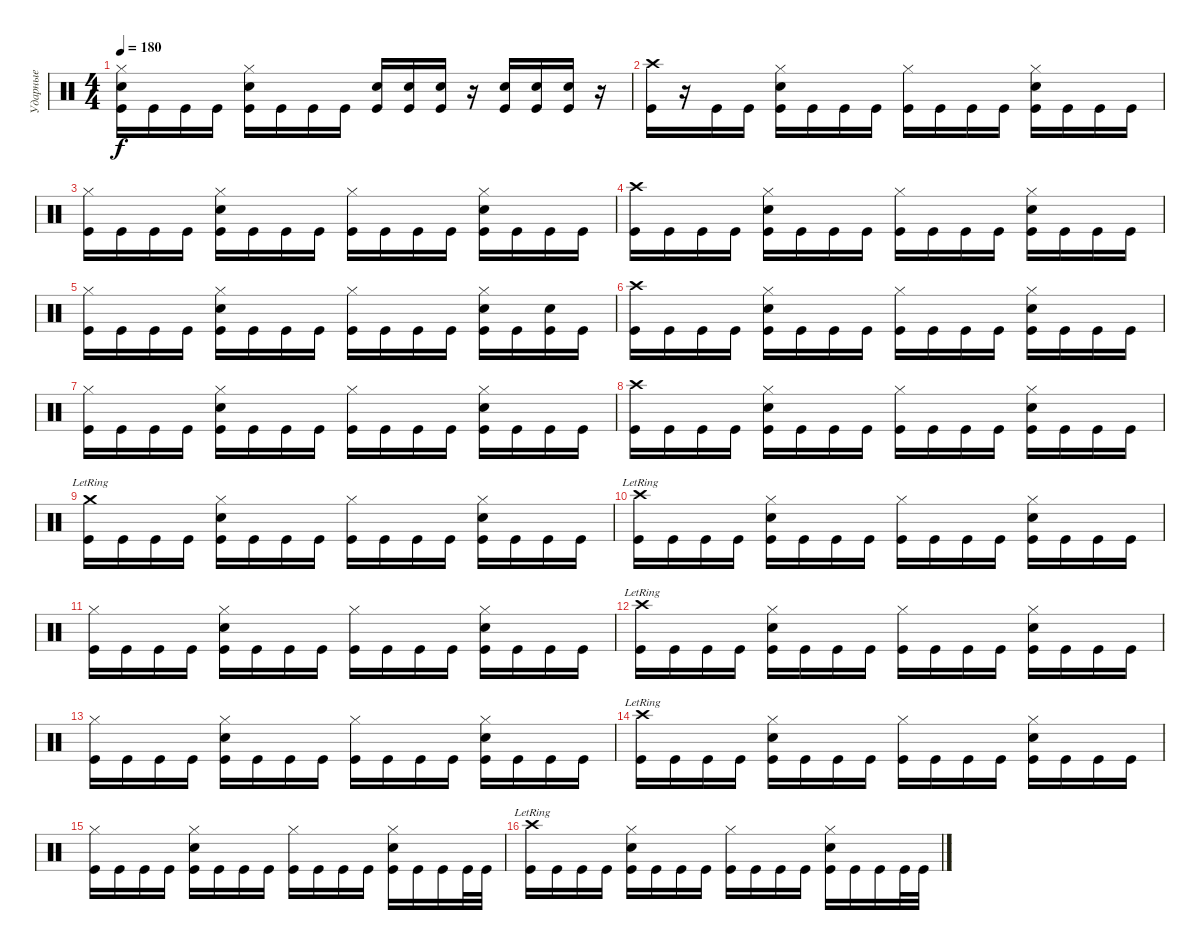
\track ("Ударные" "Ударные") {instrument percussion}
\staff {score}
\articulation defaults
\ts (4 4)
\tempo 180
\clef neutral
\ks c
("Hi-Hat (closed)" "Electric Snare (hit)" "Kick (hit)").16{dy f} "Kick (hit)".16 "Kick (hit)".16 "Kick (hit)".16 ("Hi-Hat (closed)" "Electric Snare (hit)" "Kick (hit)").16 "Kick (hit)".16 "Kick (hit)".16 "Kick (hit)".16 ("Electric Snare (hit)" "Kick (hit)").16 ("Electric Snare (hit)" "Kick (hit)").16 ("Electric Snare (hit)" "Kick (hit)").16 r.16 ("Electric Snare (hit)" "Kick (hit)").16 ("Electric Snare (hit)" "Kick (hit)").16 ("Electric Snare (hit)" "Kick (hit)").16 r.16 |
("Crash high (hit)" "Kick (hit)").16 r.16 "Kick (hit)".16 "Kick (hit)".16 ("Hi-Hat (closed)" "Electric Snare (hit)" "Kick (hit)").16 "Kick (hit)".16 "Kick (hit)".16 "Kick (hit)".16 ("Hi-Hat (closed)" "Kick (hit)").16 "Kick (hit)".16 "Kick (hit)".16 "Kick (hit)".16 ("Hi-Hat (closed)" "Electric Snare (hit)" "Kick (hit)").16 "Kick (hit)".16 "Kick (hit)".16 "Kick (hit)".16 |
("Hi-Hat (closed)" "Kick (hit)").16 "Kick (hit)".16 "Kick (hit)".16 "Kick (hit)".16 ("Hi-Hat (closed)" "Electric Snare (hit)" "Kick (hit)").16 "Kick (hit)".16 "Kick (hit)".16 "Kick (hit)".16 ("Hi-Hat (closed)" "Kick (hit)").16 "Kick (hit)".16 "Kick (hit)".16 "Kick (hit)".16 ("Hi-Hat (closed)" "Electric Snare (hit)" "Kick (hit)").16 "Kick (hit)".16 "Kick (hit)".16 "Kick (hit)".16 |
("Crash high (hit)" "Kick (hit)").16 "Kick (hit)".16 "Kick (hit)".16 "Kick (hit)".16 ("Hi-Hat (closed)" "Electric Snare (hit)" "Kick (hit)").16 "Kick (hit)".16 "Kick (hit)".16 "Kick (hit)".16 ("Hi-Hat (closed)" "Kick (hit)").16 "Kick (hit)".16 "Kick (hit)".16 "Kick (hit)".16 ("Hi-Hat (closed)" "Electric Snare (hit)" "Kick (hit)").16 "Kick (hit)".16 "Kick (hit)".16 "Kick (hit)".16 |
("Hi-Hat (closed)" "Kick (hit)").16 "Kick (hit)".16 "Kick (hit)".16 "Kick (hit)".16 ("Hi-Hat (closed)" "Electric Snare (hit)" "Kick (hit)").16 "Kick (hit)".16 "Kick (hit)".16 "Kick (hit)".16 ("Hi-Hat (closed)" "Kick (hit)").16 "Kick (hit)".16 "Kick (hit)".16 "Kick (hit)".16 ("Hi-Hat (closed)" "Electric Snare (hit)" "Kick (hit)").16 "Kick (hit)".16 ("Electric Snare (hit)" "Kick (hit)").16 "Kick (hit)".16 |
("Crash high (hit)" "Kick (hit)").16 "Kick (hit)".16 "Kick (hit)".16 "Kick (hit)".16 ("Hi-Hat (closed)" "Electric Snare (hit)" "Kick (hit)").16 "Kick (hit)".16 "Kick (hit)".16 "Kick (hit)".16 ("Hi-Hat (closed)" "Kick (hit)").16 "Kick (hit)".16 "Kick (hit)".16 "Kick (hit)".16 ("Hi-Hat (closed)" "Electric Snare (hit)" "Kick (hit)").16 "Kick (hit)".16 "Kick (hit)".16 "Kick (hit)".16 |
("Hi-Hat (closed)" "Kick (hit)").16 "Kick (hit)".16 "Kick (hit)".16 "Kick (hit)".16 ("Hi-Hat (closed)" "Electric Snare (hit)" "Kick (hit)").16 "Kick (hit)".16 "Kick (hit)".16 "Kick (hit)".16 ("Hi-Hat (closed)" "Kick (hit)").16 "Kick (hit)".16 "Kick (hit)".16 "Kick (hit)".16 ("Hi-Hat (closed)" "Electric Snare (hit)" "Kick (hit)").16 "Kick (hit)".16 "Kick (hit)".16 "Kick (hit)".16 |
("Crash high (hit)" "Kick (hit)").16 "Kick (hit)".16 "Kick (hit)".16 "Kick (hit)".16 ("Hi-Hat (closed)" "Electric Snare (hit)" "Kick (hit)").16 "Kick (hit)".16 "Kick (hit)".16 "Kick (hit)".16 ("Hi-Hat (closed)" "Kick (hit)").16 "Kick (hit)".16 "Kick (hit)".16 "Kick (hit)".16 ("Hi-Hat (closed)" "Electric Snare (hit)" "Kick (hit)").16 "Kick (hit)".16 "Kick (hit)".16 "Kick (hit)".16 |
("Crash medium (hit)"{lr} "Kick (hit)").16 "Kick (hit)".16 "Kick (hit)".16 "Kick (hit)".16 ("Hi-Hat (closed)" "Electric Snare (hit)" "Kick (hit)").16 "Kick (hit)".16 "Kick (hit)".16 "Kick (hit)".16 ("Hi-Hat (closed)" "Kick (hit)").16 "Kick (hit)".16 "Kick (hit)".16 "Kick (hit)".16 ("Hi-Hat (closed)" "Electric Snare (hit)" "Kick (hit)").16 "Kick (hit)".16 "Kick (hit)".16 "Kick (hit)".16 |
("Crash high (hit)"{lr} "Kick (hit)").16 "Kick (hit)".16 "Kick (hit)".16 "Kick (hit)".16 ("Hi-Hat (closed)" "Electric Snare (hit)" "Kick (hit)").16 "Kick (hit)".16 "Kick (hit)".16 "Kick (hit)".16 ("Hi-Hat (closed)" "Kick (hit)").16 "Kick (hit)".16 "Kick (hit)".16 "Kick (hit)".16 ("Hi-Hat (closed)" "Electric Snare (hit)" "Kick (hit)").16 "Kick (hit)".16 "Kick (hit)".16 "Kick (hit)".16 |
("Hi-Hat (closed)" "Kick (hit)").16 "Kick (hit)".16 "Kick (hit)".16 "Kick (hit)".16 ("Hi-Hat (closed)" "Electric Snare (hit)" "Kick (hit)").16 "Kick (hit)".16 "Kick (hit)".16 "Kick (hit)".16 ("Hi-Hat (closed)" "Kick (hit)").16 "Kick (hit)".16 "Kick (hit)".16 "Kick (hit)".16 ("Hi-Hat (closed)" "Electric Snare (hit)" "Kick (hit)").16 "Kick (hit)".16 "Kick (hit)".16 "Kick (hit)".16 |
("Crash high (hit)"{lr} "Kick (hit)").16 "Kick (hit)".16 "Kick (hit)".16 "Kick (hit)".16 ("Hi-Hat (closed)" "Electric Snare (hit)" "Kick (hit)").16 "Kick (hit)".16 "Kick (hit)".16 "Kick (hit)".16 ("Hi-Hat (closed)" "Kick (hit)").16 "Kick (hit)".16 "Kick (hit)".16 "Kick (hit)".16 ("Hi-Hat (closed)" "Electric Snare (hit)" "Kick (hit)").16 "Kick (hit)".16 "Kick (hit)".16 "Kick (hit)".16 |
("Hi-Hat (closed)" "Kick (hit)").16 "Kick (hit)".16 "Kick (hit)".16 "Kick (hit)".16 ("Hi-Hat (closed)" "Electric Snare (hit)" "Kick (hit)").16 "Kick (hit)".16 "Kick (hit)".16 "Kick (hit)".16 ("Hi-Hat (closed)" "Kick (hit)").16 "Kick (hit)".16 "Kick (hit)".16 "Kick (hit)".16 ("Hi-Hat (closed)" "Electric Snare (hit)" "Kick (hit)").16 "Kick (hit)".16 "Kick (hit)".16 "Kick (hit)".16 |
("Crash high (hit)"{lr} "Kick (hit)").16 "Kick (hit)".16 "Kick (hit)".16 "Kick (hit)".16 ("Hi-Hat (closed)" "Electric Snare (hit)" "Kick (hit)").16 "Kick (hit)".16 "Kick (hit)".16 "Kick (hit)".16 ("Hi-Hat (closed)" "Kick (hit)").16 "Kick (hit)".16 "Kick (hit)".16 "Kick (hit)".16 ("Hi-Hat (closed)" "Electric Snare (hit)" "Kick (hit)").16 "Kick (hit)".16 "Kick (hit)".16 "Kick (hit)".16 |
("Hi-Hat (closed)" "Kick (hit)").16 "Kick (hit)".16 "Kick (hit)".16 "Kick (hit)".16 ("Hi-Hat (closed)" "Electric Snare (hit)" "Kick (hit)").16 "Kick (hit)".16 "Kick (hit)".16 "Kick (hit)".16 ("Hi-Hat (closed)" "Kick (hit)").16 "Kick (hit)".16 "Kick (hit)".16 "Kick (hit)".16 ("Hi-Hat (closed)" "Electric Snare (hit)" "Kick (hit)").16 "Kick (hit)".16 "Kick (hit)".16 "Kick (hit)".32 "Kick (hit)".32 |
("Crash high (hit)"{lr} "Kick (hit)").16 "Kick (hit)".16 "Kick (hit)".16 "Kick (hit)".16 ("Hi-Hat (closed)" "Electric Snare (hit)" "Kick (hit)").16 "Kick (hit)".16 "Kick (hit)".16 "Kick (hit)".16 ("Hi-Hat (closed)" "Kick (hit)").16 "Kick (hit)".16 "Kick (hit)".16 "Kick (hit)".16 ("Hi-Hat (closed)" "Electric Snare (hit)" "Kick (hit)").16 "Kick (hit)".16 "Kick (hit)".16 "Kick (hit)".32 "Kick (hit)".32
